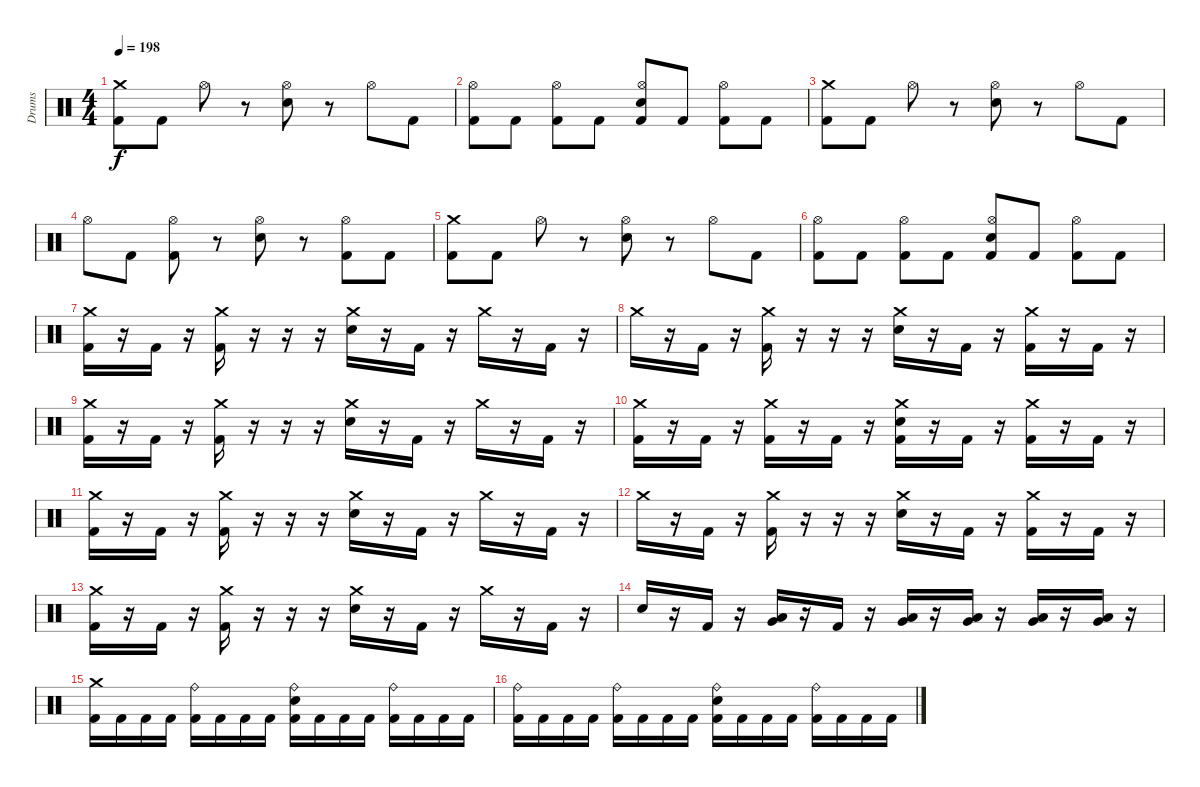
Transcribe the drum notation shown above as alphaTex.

\track ("Drums" "Drums") {instrument percussion}
\staff {score}
\articulation defaults
\ts (4 4)
\tempo 198
\clef neutral
\ks c
("Crash medium (hit)" "Kick (hit) 2").8{dy f} "Kick (hit) 2".8 "Hi-Hat (open)".8 r.8 ("Hi-Hat (open)" "Snare (hit) 2").8 r.8 "Hi-Hat (open)".8 "Kick (hit) 2".8 |
("Hi-Hat (open)" "Kick (hit) 2").8 "Kick (hit) 2".8 ("Hi-Hat (open)" "Kick (hit) 2").8 "Kick (hit) 2".8 ("Hi-Hat (open)" "Snare (hit) 2" "Kick (hit) 2").8 "Kick (hit) 2".8 ("Hi-Hat (open)" "Kick (hit) 2").8 "Kick (hit) 2".8 |
("Crash medium (hit)" "Kick (hit) 2").8 "Kick (hit) 2".8 "Hi-Hat (open)".8 r.8 ("Hi-Hat (open)" "Snare (hit) 2").8 r.8 "Hi-Hat (open)".8 "Kick (hit) 2".8 |
"Hi-Hat (open)".8 "Kick (hit) 2".8 ("Hi-Hat (open)" "Kick (hit) 2").8 r.8 ("Hi-Hat (open)" "Snare (hit) 2").8 r.8 ("Hi-Hat (open)" "Kick (hit) 2").8 "Kick (hit) 2".8 |
("Crash medium (hit)" "Kick (hit) 2").8 "Kick (hit) 2".8 "Hi-Hat (open)".8 r.8 ("Hi-Hat (open)" "Snare (hit) 2").8 r.8 "Hi-Hat (open)".8 "Kick (hit) 2".8 |
("Hi-Hat (open)" "Kick (hit) 2").8 "Kick (hit) 2".8 ("Hi-Hat (open)" "Kick (hit) 2").8 "Kick (hit) 2".8 ("Hi-Hat (open)" "Snare (hit) 2" "Kick (hit) 2").8 "Kick (hit) 2".8 ("Hi-Hat (open)" "Kick (hit) 2").8 "Kick (hit) 2".8 |
("Crash medium (hit)" "Kick (hit) 2").16 r.16 "Kick (hit) 2".16 r.16 ("Crash medium (hit)" "Kick (hit) 2").16 r.16 r.16 r.16 ("Crash medium (hit)" "Snare (hit) 2").16 r.16 "Kick (hit) 2".16 r.16 "Crash medium (hit)".16 r.16 "Kick (hit) 2".16 r.16 |
"Crash medium (hit)".16 r.16 "Kick (hit) 2".16 r.16 ("Crash medium (hit)" "Kick (hit) 2").16 r.16 r.16 r.16 ("Crash medium (hit)" "Snare (hit) 2").16 r.16 "Kick (hit) 2".16 r.16 ("Crash medium (hit)" "Kick (hit) 2").16 r.16 "Kick (hit) 2".16 r.16 |
("Crash medium (hit)" "Kick (hit) 2").16 r.16 "Kick (hit) 2".16 r.16 ("Crash medium (hit)" "Kick (hit) 2").16 r.16 r.16 r.16 ("Crash medium (hit)" "Snare (hit) 2").16 r.16 "Kick (hit) 2".16 r.16 "Crash medium (hit)".16 r.16 "Kick (hit) 2".16 r.16 |
("Crash medium (hit)" "Kick (hit) 2").16 r.16 "Kick (hit) 2".16 r.16 ("Crash medium (hit)" "Kick (hit) 2").16 r.16 "Kick (hit) 2".16 r.16 ("Crash medium (hit)" "Snare (hit) 2" "Kick (hit) 2").16 r.16 "Kick (hit) 2".16 r.16 ("Crash medium (hit)" "Kick (hit) 2").16 r.16 "Kick (hit) 2".16 r.16 |
("Crash medium (hit)" "Kick (hit) 2").16 r.16 "Kick (hit) 2".16 r.16 ("Crash medium (hit)" "Kick (hit) 2").16 r.16 r.16 r.16 ("Crash medium (hit)" "Snare (hit) 2").16 r.16 "Kick (hit) 2".16 r.16 "Crash medium (hit)".16 r.16 "Kick (hit) 2".16 r.16 |
"Crash medium (hit)".16 r.16 "Kick (hit) 2".16 r.16 ("Crash medium (hit)" "Kick (hit) 2").16 r.16 r.16 r.16 ("Crash medium (hit)" "Snare (hit) 2").16 r.16 "Kick (hit) 2".16 r.16 ("Crash medium (hit)" "Kick (hit) 2").16 r.16 "Kick (hit) 2".16 r.16 |
("Crash medium (hit)" "Kick (hit) 2").16 r.16 "Kick (hit) 2".16 r.16 ("Crash medium (hit)" "Kick (hit) 2").16 r.16 r.16 r.16 ("Crash medium (hit)" "Snare (hit) 2").16 r.16 "Kick (hit) 2".16 r.16 "Crash medium (hit)".16 r.16 "Kick (hit) 2".16 r.16 |
"Snare (hit) 2".16 r.16 "Kick (hit) 2".16 r.16 ("Very Low Tom (hit)" "Low Tom (hit)").16 r.16 "Kick (hit) 2".16 r.16 ("Very Low Tom (hit)" "Low Floor Tom (hit)").16 r.16 ("Very Low Tom (hit)" "Low Floor Tom (hit)").16 r.16 ("Very Low Tom (hit)" "Low Floor Tom (hit)").16 r.16 ("Very Low Tom (hit)" "Low Floor Tom (hit)").16 r.16 |
("Crash medium (hit)" "Kick (hit) 2").16 "Kick (hit) 2".16 "Kick (hit) 2".16 "Kick (hit) 2".16 ("Ride (bell)" "Kick (hit) 2").16 "Kick (hit) 2".16 "Kick (hit) 2".16 "Kick (hit) 2".16 ("Ride (bell)" "Snare (hit) 2" "Kick (hit) 2").16 "Kick (hit) 2".16 "Kick (hit) 2".16 "Kick (hit) 2".16 ("Ride (bell)" "Kick (hit) 2").16 "Kick (hit) 2".16 "Kick (hit) 2".16 "Kick (hit) 2".16 |
("Ride (bell)" "Kick (hit) 2").16 "Kick (hit) 2".16 "Kick (hit) 2".16 "Kick (hit) 2".16 ("Ride (bell)" "Kick (hit) 2").16 "Kick (hit) 2".16 "Kick (hit) 2".16 "Kick (hit) 2".16 ("Ride (bell)" "Snare (hit) 2" "Kick (hit) 2").16 "Kick (hit) 2".16 "Kick (hit) 2".16 "Kick (hit) 2".16 ("Ride (bell)" "Kick (hit) 2").16 "Kick (hit) 2".16 "Kick (hit) 2".16 "Kick (hit) 2".16
